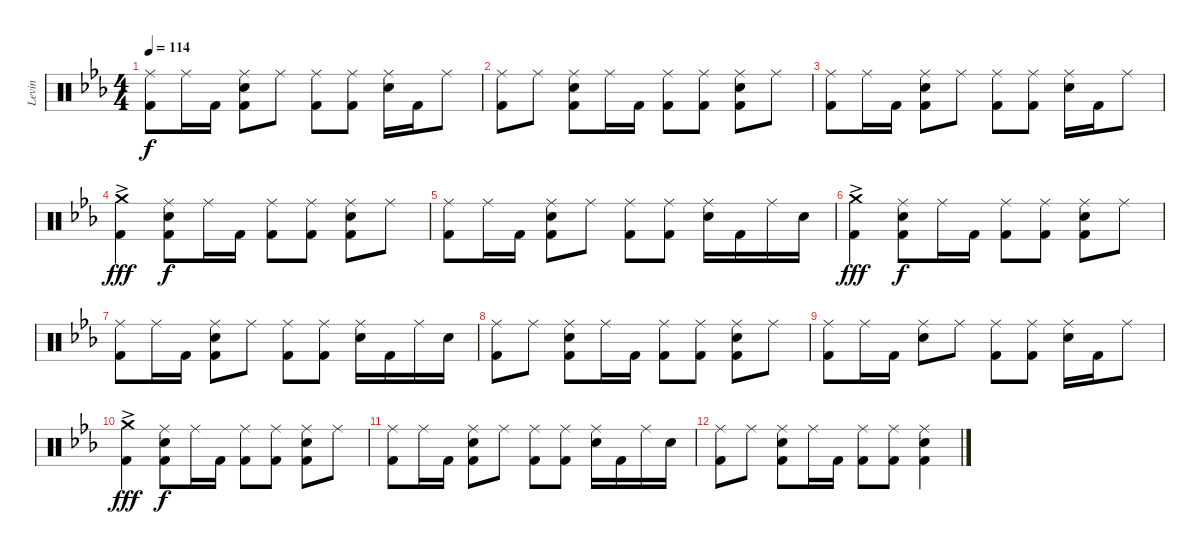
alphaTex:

\track ("Levin" "Levin") {instrument percussion}
\staff {score}
\articulation defaults
\ts (4 4)
\tempo 114
\clef neutral
\ks eb
("Ride (middle)" "Kick (hit) 2").8{dy f} "Ride (middle)".16 "Kick (hit) 2".16 ("Ride (middle)" "Electric Snare (hit)" "Kick (hit) 2").8 "Ride (middle)".8 ("Ride (middle)" "Kick (hit) 2").8 ("Ride (middle)" "Kick (hit) 2").8 ("Ride (middle)" "Electric Snare (hit)").16 "Kick (hit) 2".16 "Ride (middle)".8 |
("Ride (middle)" "Kick (hit) 2").8 "Ride (middle)".8 ("Ride (middle)" "Electric Snare (hit)" "Kick (hit) 2").8 "Ride (middle)".16 "Kick (hit) 2".16 ("Ride (middle)" "Kick (hit) 2").8 ("Ride (middle)" "Kick (hit) 2").8 ("Ride (middle)" "Electric Snare (hit)" "Kick (hit) 2").8 "Ride (middle)".8 |
("Ride (middle)" "Kick (hit) 2").8 "Ride (middle)".16 "Kick (hit) 2".16 ("Ride (middle)" "Electric Snare (hit)" "Kick (hit) 2").8 "Ride (middle)".8 ("Ride (middle)" "Kick (hit) 2").8 ("Ride (middle)" "Kick (hit) 2").8 ("Ride (middle)" "Electric Snare (hit)").16 "Kick (hit) 2".16 "Ride (middle)".8 |
("Crash medium (hit)"{ac} "Kick (hit) 2").4{dy fff} ("Ride (middle)" "Electric Snare (hit)" "Kick (hit) 2").8{dy f} "Ride (middle)".16 "Kick (hit) 2".16 ("Ride (middle)" "Kick (hit) 2").8 ("Ride (middle)" "Kick (hit) 2").8 ("Ride (middle)" "Electric Snare (hit)" "Kick (hit) 2").8 "Ride (middle)".8 |
("Ride (middle)" "Kick (hit) 2").8 "Ride (middle)".16 "Kick (hit) 2".16 ("Ride (middle)" "Electric Snare (hit)" "Kick (hit) 2").8 "Ride (middle)".8 ("Ride (middle)" "Kick (hit) 2").8 ("Ride (middle)" "Kick (hit) 2").8 ("Ride (middle)" "Electric Snare (hit)").16 "Kick (hit) 2".16 "Ride (middle)".16 "Electric Snare (hit)".16 |
("Crash medium (hit)"{ac} "Kick (hit) 2").4{dy fff} ("Ride (middle)" "Electric Snare (hit)" "Kick (hit) 2").8{dy f} "Ride (middle)".16 "Kick (hit) 2".16 ("Ride (middle)" "Kick (hit) 2").8 ("Ride (middle)" "Kick (hit) 2").8 ("Ride (middle)" "Electric Snare (hit)" "Kick (hit) 2").8 "Ride (middle)".8 |
("Ride (middle)" "Kick (hit) 2").8 "Ride (middle)".16 "Kick (hit) 2".16 ("Ride (middle)" "Electric Snare (hit)" "Kick (hit) 2").8 "Ride (middle)".8 ("Ride (middle)" "Kick (hit) 2").8 ("Ride (middle)" "Kick (hit) 2").8 ("Ride (middle)" "Electric Snare (hit)").16 "Kick (hit) 2".16 "Ride (middle)".16 "Electric Snare (hit)".16 |
("Ride (middle)" "Kick (hit) 2").8 "Ride (middle)".8 ("Ride (middle)" "Electric Snare (hit)" "Kick (hit) 2").8 "Ride (middle)".16 "Kick (hit) 2".16 ("Ride (middle)" "Kick (hit) 2").8 ("Ride (middle)" "Kick (hit) 2").8 ("Ride (middle)" "Electric Snare (hit)" "Kick (hit) 2").8 "Ride (middle)".8 |
("Ride (middle)" "Kick (hit) 2").8 "Ride (middle)".16 "Kick (hit) 2".16 ("Ride (middle)" "Electric Snare (hit)").8 "Ride (middle)".8 ("Ride (middle)" "Kick (hit) 2").8 ("Ride (middle)" "Kick (hit) 2").8 ("Ride (middle)" "Electric Snare (hit)").16 "Kick (hit) 2".16 "Ride (middle)".8 |
("Crash medium (hit)"{ac} "Kick (hit) 2").4{dy fff} ("Ride (middle)" "Electric Snare (hit)" "Kick (hit) 2").8{dy f} "Ride (middle)".16 "Kick (hit) 2".16 ("Ride (middle)" "Kick (hit) 2").8 ("Ride (middle)" "Kick (hit) 2").8 ("Ride (middle)" "Electric Snare (hit)" "Kick (hit) 2").8 "Ride (middle)".8 |
("Ride (middle)" "Kick (hit) 2").8 "Ride (middle)".16 "Kick (hit) 2".16 ("Ride (middle)" "Electric Snare (hit)" "Kick (hit) 2").8 "Ride (middle)".8 ("Ride (middle)" "Kick (hit) 2").8 ("Ride (middle)" "Kick (hit) 2").8 ("Ride (middle)" "Electric Snare (hit)").16 "Kick (hit) 2".16 "Ride (middle)".16 "Electric Snare (hit)".16 |
("Ride (middle)" "Kick (hit) 2").8 "Ride (middle)".8 ("Ride (middle)" "Electric Snare (hit)" "Kick (hit) 2").8 "Ride (middle)".16 "Kick (hit) 2".16 ("Ride (middle)" "Kick (hit) 2").8 ("Ride (middle)" "Kick (hit) 2").8 ("Ride (middle)" "Electric Snare (hit)" "Kick (hit) 2").4
